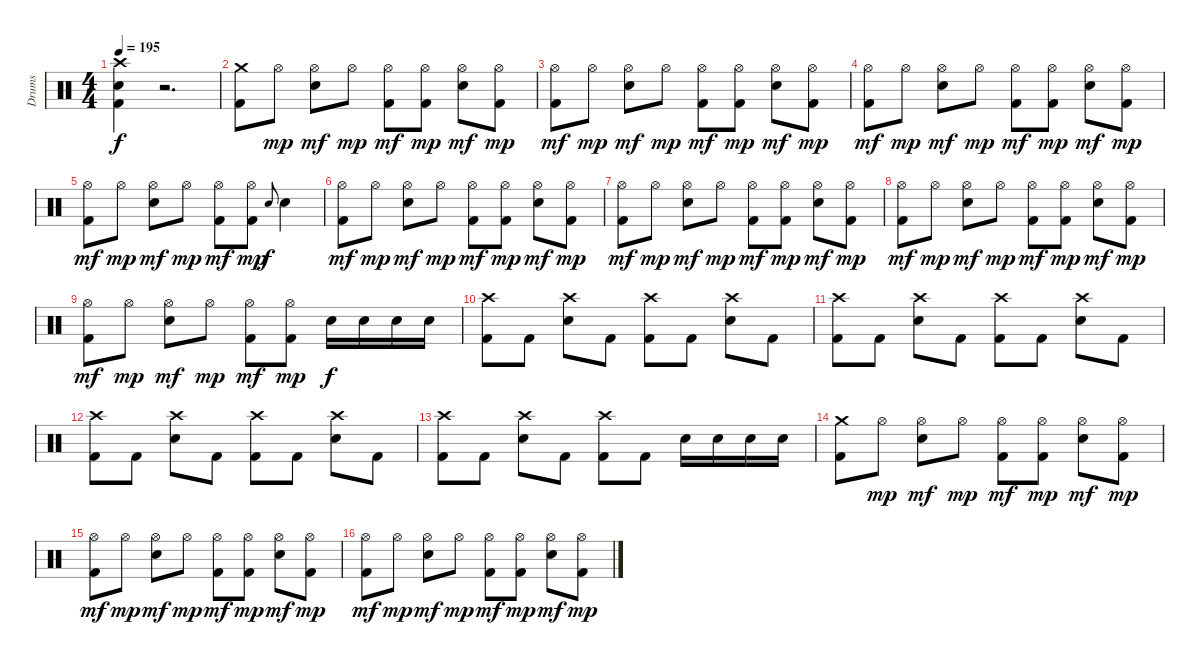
\track ("Drums" "Drums") {instrument percussion}
\staff {score}
\articulation defaults
\ts (4 4)
\tempo 195
\clef neutral
\ks c
("Crash high (hit)" "Electric Snare (hit)" "Kick (hit) 2").4{dy f} r.2{d} |
("Crash medium (hit)" "Kick (hit) 2").8 "Hi-Hat (open)".8{dy mp} ("Hi-Hat (open)" "Electric Snare (hit)").8{dy mf} "Hi-Hat (open)".8{dy mp} ("Hi-Hat (open)" "Kick (hit) 2").8{dy mf} ("Hi-Hat (open)" "Kick (hit) 2").8{dy mp} ("Hi-Hat (open)" "Electric Snare (hit)").8{dy mf} ("Hi-Hat (open)" "Kick (hit) 2").8{dy mp} |
("Hi-Hat (open)" "Kick (hit) 2").8{dy mf} "Hi-Hat (open)".8{dy mp} ("Hi-Hat (open)" "Electric Snare (hit)").8{dy mf} "Hi-Hat (open)".8{dy mp} ("Hi-Hat (open)" "Kick (hit) 2").8{dy mf} ("Hi-Hat (open)" "Kick (hit) 2").8{dy mp} ("Hi-Hat (open)" "Electric Snare (hit)").8{dy mf} ("Hi-Hat (open)" "Kick (hit) 2").8{dy mp} |
("Hi-Hat (open)" "Kick (hit) 2").8{dy mf} "Hi-Hat (open)".8{dy mp} ("Hi-Hat (open)" "Electric Snare (hit)").8{dy mf} "Hi-Hat (open)".8{dy mp} ("Hi-Hat (open)" "Kick (hit) 2").8{dy mf} ("Hi-Hat (open)" "Kick (hit) 2").8{dy mp} ("Hi-Hat (open)" "Electric Snare (hit)").8{dy mf} ("Hi-Hat (open)" "Kick (hit) 2").8{dy mp} |
("Hi-Hat (open)" "Kick (hit) 2").8{dy mf} "Hi-Hat (open)".8{dy mp} ("Hi-Hat (open)" "Electric Snare (hit)").8{dy mf} "Hi-Hat (open)".8{dy mp} ("Hi-Hat (open)" "Kick (hit) 2").8{dy mf} ("Hi-Hat (open)" "Kick (hit) 2").8{dy mp} "Electric Snare (hit)".8{gr onbeat dy f} "Electric Snare (hit)".4 |
("Hi-Hat (open)" "Kick (hit) 2").8{dy mf} "Hi-Hat (open)".8{dy mp} ("Hi-Hat (open)" "Electric Snare (hit)").8{dy mf} "Hi-Hat (open)".8{dy mp} ("Hi-Hat (open)" "Kick (hit) 2").8{dy mf} ("Hi-Hat (open)" "Kick (hit) 2").8{dy mp} ("Hi-Hat (open)" "Electric Snare (hit)").8{dy mf} ("Hi-Hat (open)" "Kick (hit) 2").8{dy mp} |
("Hi-Hat (open)" "Kick (hit) 2").8{dy mf} "Hi-Hat (open)".8{dy mp} ("Hi-Hat (open)" "Electric Snare (hit)").8{dy mf} "Hi-Hat (open)".8{dy mp} ("Hi-Hat (open)" "Kick (hit) 2").8{dy mf} ("Hi-Hat (open)" "Kick (hit) 2").8{dy mp} ("Hi-Hat (open)" "Electric Snare (hit)").8{dy mf} ("Hi-Hat (open)" "Kick (hit) 2").8{dy mp} |
("Hi-Hat (open)" "Kick (hit) 2").8{dy mf} "Hi-Hat (open)".8{dy mp} ("Hi-Hat (open)" "Electric Snare (hit)").8{dy mf} "Hi-Hat (open)".8{dy mp} ("Hi-Hat (open)" "Kick (hit) 2").8{dy mf} ("Hi-Hat (open)" "Kick (hit) 2").8{dy mp} ("Hi-Hat (open)" "Electric Snare (hit)").8{dy mf} ("Hi-Hat (open)" "Kick (hit) 2").8{dy mp} |
("Hi-Hat (open)" "Kick (hit) 2").8{dy mf} "Hi-Hat (open)".8{dy mp} ("Hi-Hat (open)" "Electric Snare (hit)").8{dy mf} "Hi-Hat (open)".8{dy mp} ("Hi-Hat (open)" "Kick (hit) 2").8{dy mf} ("Hi-Hat (open)" "Kick (hit) 2").8{dy mp} "Electric Snare (hit)".16{dy f} "Electric Snare (hit)".16 "Electric Snare (hit)".16 "Electric Snare (hit)".16 |
("Crash high (hit)" "Kick (hit) 2").8 "Kick (hit) 2".8 ("Crash high (hit)" "Electric Snare (hit)").8 "Kick (hit) 2".8 ("Crash high (hit)" "Kick (hit) 2").8 "Kick (hit) 2".8 ("Crash high (hit)" "Electric Snare (hit)").8 "Kick (hit) 2".8 |
("Crash high (hit)" "Kick (hit) 2").8 "Kick (hit) 2".8 ("Crash high (hit)" "Electric Snare (hit)").8 "Kick (hit) 2".8 ("Crash high (hit)" "Kick (hit) 2").8 "Kick (hit) 2".8 ("Crash high (hit)" "Electric Snare (hit)").8 "Kick (hit) 2".8 |
("Crash high (hit)" "Kick (hit) 2").8 "Kick (hit) 2".8 ("Crash high (hit)" "Electric Snare (hit)").8 "Kick (hit) 2".8 ("Crash high (hit)" "Kick (hit) 2").8 "Kick (hit) 2".8 ("Crash high (hit)" "Electric Snare (hit)").8 "Kick (hit) 2".8 |
("Crash high (hit)" "Kick (hit) 2").8 "Kick (hit) 2".8 ("Crash high (hit)" "Electric Snare (hit)").8 "Kick (hit) 2".8 ("Crash high (hit)" "Kick (hit) 2").8 "Kick (hit) 2".8 "Electric Snare (hit)".16 "Electric Snare (hit)".16 "Electric Snare (hit)".16 "Electric Snare (hit)".16 |
("Crash medium (hit)" "Kick (hit) 2").8 "Hi-Hat (open)".8{dy mp} ("Hi-Hat (open)" "Electric Snare (hit)").8{dy mf} "Hi-Hat (open)".8{dy mp} ("Hi-Hat (open)" "Kick (hit) 2").8{dy mf} ("Hi-Hat (open)" "Kick (hit) 2").8{dy mp} ("Hi-Hat (open)" "Electric Snare (hit)").8{dy mf} ("Hi-Hat (open)" "Kick (hit) 2").8{dy mp} |
("Hi-Hat (open)" "Kick (hit) 2").8{dy mf} "Hi-Hat (open)".8{dy mp} ("Hi-Hat (open)" "Electric Snare (hit)").8{dy mf} "Hi-Hat (open)".8{dy mp} ("Hi-Hat (open)" "Kick (hit) 2").8{dy mf} ("Hi-Hat (open)" "Kick (hit) 2").8{dy mp} ("Hi-Hat (open)" "Electric Snare (hit)").8{dy mf} ("Hi-Hat (open)" "Kick (hit) 2").8{dy mp} |
("Hi-Hat (open)" "Kick (hit) 2").8{dy mf} "Hi-Hat (open)".8{dy mp} ("Hi-Hat (open)" "Electric Snare (hit)").8{dy mf} "Hi-Hat (open)".8{dy mp} ("Hi-Hat (open)" "Kick (hit) 2").8{dy mf} ("Hi-Hat (open)" "Kick (hit) 2").8{dy mp} ("Hi-Hat (open)" "Electric Snare (hit)").8{dy mf} ("Hi-Hat (open)" "Kick (hit) 2").8{dy mp}
